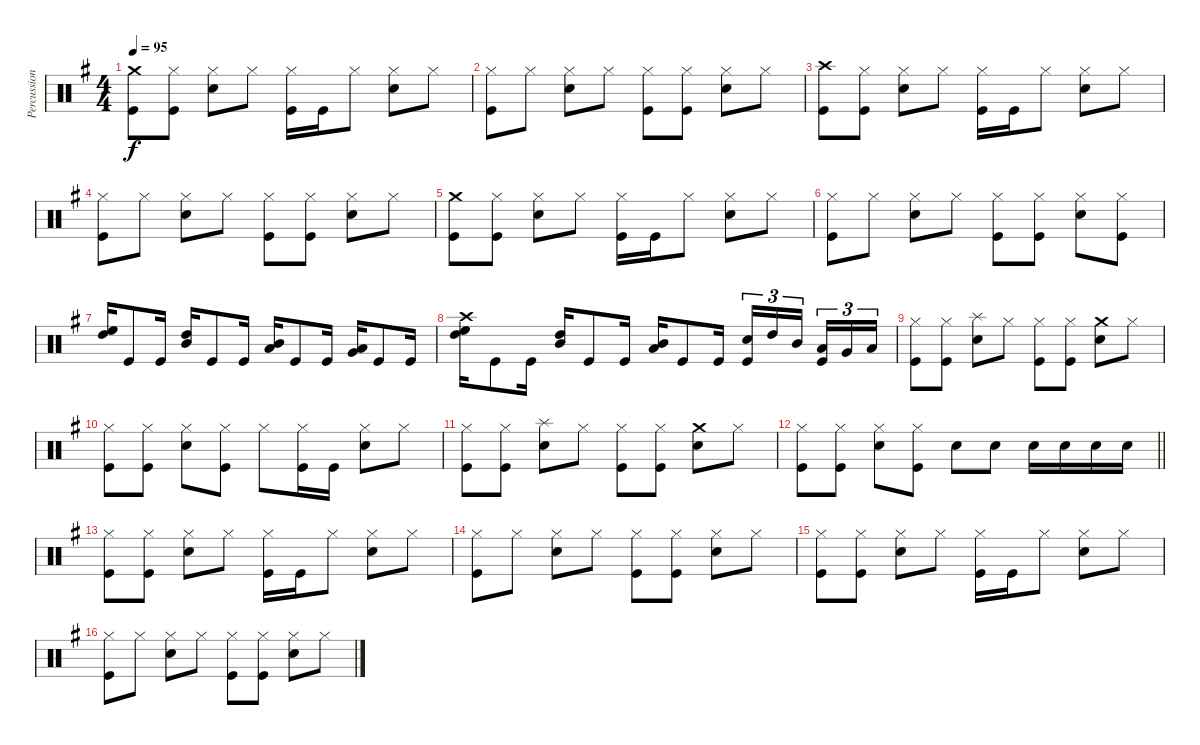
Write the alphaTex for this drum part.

\track ("Percussion" "Percussion") {instrument percussion}
\staff {score}
\articulation defaults
\ts (4 4)
\tempo 95
\clef neutral
\ks eminor
("Crash medium (hit)" "Kick (hit)").8{dy f} ("Hi-Hat (closed)" "Kick (hit)").8 ("Hi-Hat (closed)" "Snare (hit) 2").8 "Hi-Hat (closed)".8 ("Hi-Hat (closed)" "Kick (hit)").16 "Kick (hit)".16 "Hi-Hat (closed)".8 ("Hi-Hat (closed)" "Snare (hit) 2").8 "Hi-Hat (closed)".8 |
("Hi-Hat (closed)" "Kick (hit)").8 "Hi-Hat (closed)".8 ("Hi-Hat (closed)" "Snare (hit) 2").8 "Hi-Hat (closed)".8 ("Hi-Hat (closed)" "Kick (hit)").8 ("Hi-Hat (closed)" "Kick (hit)").8 ("Hi-Hat (closed)" "Snare (hit) 2").8 "Hi-Hat (closed)".8 |
("Crash high (hit)" "Kick (hit)").8 ("Hi-Hat (closed)" "Kick (hit)").8 ("Hi-Hat (closed)" "Snare (hit) 2").8 "Hi-Hat (closed)".8 ("Hi-Hat (closed)" "Kick (hit)").16 "Kick (hit)".16 "Hi-Hat (closed)".8 ("Hi-Hat (closed)" "Snare (hit) 2").8 "Hi-Hat (closed)".8 |
("Hi-Hat (closed)" "Kick (hit)").8 "Hi-Hat (closed)".8 ("Hi-Hat (closed)" "Snare (hit) 2").8 "Hi-Hat (closed)".8 ("Hi-Hat (closed)" "Kick (hit)").8 ("Hi-Hat (closed)" "Kick (hit)").8 ("Hi-Hat (closed)" "Snare (hit) 2").8 "Hi-Hat (closed)".8 |
("Crash medium (hit)" "Kick (hit)").8 ("Hi-Hat (closed)" "Kick (hit)").8 ("Hi-Hat (closed)" "Snare (hit) 2").8 "Hi-Hat (closed)".8 ("Hi-Hat (closed)" "Kick (hit)").16 "Kick (hit)".16 "Hi-Hat (closed)".8 ("Hi-Hat (closed)" "Snare (hit) 2").8 "Hi-Hat (closed)".8 |
("Hi-Hat (closed)" "Kick (hit)").8 "Hi-Hat (closed)".8 ("Hi-Hat (closed)" "Snare (hit) 2").8 "Hi-Hat (closed)".8 ("Hi-Hat (closed)" "Kick (hit)").8 ("Hi-Hat (closed)" "Kick (hit)").8 ("Hi-Hat (closed)" "Snare (hit) 2").8 ("Hi-Hat (closed)" "Kick (hit)").8 |
("High Floor Tom (hit)" "High Tom (hit)").16 "Kick (hit)".8 "Kick (hit)".16 ("High Tom (hit)" "Mid Tom (hit)").16 "Kick (hit)".8 "Kick (hit)".16 ("Mid Tom (hit)" "Low Tom (hit)").16 "Kick (hit)".8 "Kick (hit)".16 ("Low Tom (hit)" "Very Low Tom (hit)").16 "Kick (hit)".8 "Kick (hit)".16 |
("Crash high (hit)" "High Floor Tom (hit)" "High Tom (hit)").16 "Kick (hit)".8 "Kick (hit)".16 ("High Tom (hit)" "Mid Tom (hit)").16 "Kick (hit)".8 "Kick (hit)".16 ("Mid Tom (hit)" "Low Tom (hit)").16 "Kick (hit)".8 "Kick (hit)".16 ("Snare (hit) 2" "Kick (hit)").16{tu (3 2)} "High Tom (hit)".16{tu (3 2)} "Mid Tom (hit)".16{tu (3 2) beam splitsecondary} ("Low Tom (hit)" "Kick (hit)").16{tu (3 2)} "Very Low Tom (hit)".16{tu (3 2)} "Low Floor Tom (hit)".16{tu (3 2)} |
("Hi-Hat (closed)" "Kick (hit)").8 ("Hi-Hat (closed)" "Kick (hit)").8 ("Splash (hit)" "Snare (hit) 2").8 "Hi-Hat (closed)".8 ("Hi-Hat (closed)" "Kick (hit)").8 ("Hi-Hat (closed)" "Kick (hit)").8 ("Crash medium (hit)" "Snare (hit) 2").8 "Hi-Hat (closed)".8 |
("Hi-Hat (closed)" "Kick (hit)").8 ("Hi-Hat (closed)" "Kick (hit)").8 ("Hi-Hat (closed)" "Snare (hit) 2").8 ("Hi-Hat (closed)" "Kick (hit)").8 "Hi-Hat (closed)".8 ("Hi-Hat (closed)" "Kick (hit)").16 "Kick (hit)".16 ("Hi-Hat (closed)" "Snare (hit) 2").8 "Hi-Hat (closed)".8 |
("Hi-Hat (closed)" "Kick (hit)").8 ("Hi-Hat (closed)" "Kick (hit)").8 ("Splash (hit)" "Snare (hit) 2").8 "Hi-Hat (closed)".8 ("Hi-Hat (closed)" "Kick (hit)").8 ("Hi-Hat (closed)" "Kick (hit)").8 ("Crash medium (hit)" "Snare (hit) 2").8 "Hi-Hat (closed)".8 |
\barLineRight lightlight
("Hi-Hat (closed)" "Kick (hit)").8 ("Hi-Hat (closed)" "Kick (hit)").8 ("Hi-Hat (closed)" "Snare (hit) 2").8 ("Hi-Hat (closed)" "Kick (hit)").8 "Snare (hit) 2".8 "Snare (hit) 2".8 "Snare (hit) 2".16 "Snare (hit) 2".16 "Snare (hit) 2".16 "Snare (hit) 2".16 |
("Hi-Hat (closed)" "Kick (hit)").8 ("Hi-Hat (closed)" "Kick (hit)").8 ("Hi-Hat (closed)" "Snare (hit) 2").8 "Hi-Hat (closed)".8 ("Hi-Hat (closed)" "Kick (hit)").16 "Kick (hit)".16 "Hi-Hat (closed)".8 ("Hi-Hat (closed)" "Snare (hit) 2").8 "Hi-Hat (closed)".8 |
("Hi-Hat (closed)" "Kick (hit)").8 "Hi-Hat (closed)".8 ("Hi-Hat (closed)" "Snare (hit) 2").8 "Hi-Hat (closed)".8 ("Hi-Hat (closed)" "Kick (hit)").8 ("Hi-Hat (closed)" "Kick (hit)").8 ("Hi-Hat (closed)" "Snare (hit) 2").8 "Hi-Hat (closed)".8 |
("Hi-Hat (closed)" "Kick (hit)").8 ("Hi-Hat (closed)" "Kick (hit)").8 ("Hi-Hat (closed)" "Snare (hit) 2").8 "Hi-Hat (closed)".8 ("Hi-Hat (closed)" "Kick (hit)").16 "Kick (hit)".16 "Hi-Hat (closed)".8 ("Hi-Hat (closed)" "Snare (hit) 2").8 "Hi-Hat (closed)".8 |
("Hi-Hat (closed)" "Kick (hit)").8 "Hi-Hat (closed)".8 ("Hi-Hat (closed)" "Snare (hit) 2").8 "Hi-Hat (closed)".8 ("Hi-Hat (closed)" "Kick (hit)").8 ("Hi-Hat (closed)" "Kick (hit)").8 ("Hi-Hat (closed)" "Snare (hit) 2").8 "Hi-Hat (closed)".8
